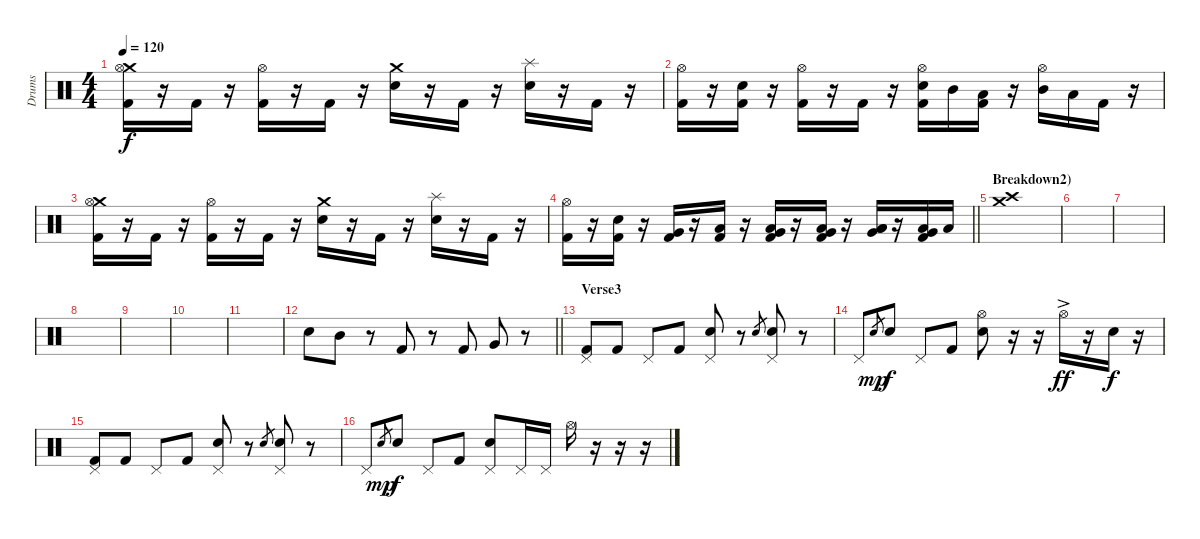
\track ("Drums" "Drums") {instrument percussion}
\staff {score}
\articulation defaults
\ts (4 4)
\tempo 120
\clef neutral
\ks c
("Crash medium (hit)" "Hi-Hat (open)" "Kick (hit) 2").16{dy f} r.16 "Kick (hit) 2".16 r.16 ("Hi-Hat (open)" "Kick (hit) 2").16 r.16 "Kick (hit) 2".16 r.16 ("Snare (hit) 2" "Crash medium (hit)").16 r.16 "Kick (hit) 2".16 r.16 ("Snare (hit) 2" "Splash (hit)").16 r.16 "Kick (hit) 2".16 r.16 |
("Hi-Hat (open)" "Kick (hit) 2").16 r.16 ("Snare (hit) 2" "Kick (hit) 2").16 r.16 ("Hi-Hat (open)" "Kick (hit) 2").16 r.16 "Kick (hit) 2".16 r.16 ("Hi-Hat (open)" "Snare (hit) 2" "Kick (hit) 2").16 "Mid Tom (hit)".16 ("Low Tom (hit)" "Kick (hit) 2").16 r.16 ("Hi-Hat (open)" "Mid Tom (hit)").16 "Low Tom (hit)".16 "Kick (hit) 2".16 r.16 |
("Crash medium (hit)" "Hi-Hat (open)" "Kick (hit) 2").16 r.16 "Kick (hit) 2".16 r.16 ("Hi-Hat (open)" "Kick (hit) 2").16 r.16 "Kick (hit) 2".16 r.16 ("Snare (hit) 2" "Crash medium (hit)").16 r.16 "Kick (hit) 2".16 r.16 ("Snare (hit) 2" "Splash (hit)").16 r.16 "Kick (hit) 2".16 r.16 |
\barLineRight lightlight
("Hi-Hat (open)" "Kick (hit) 2").16 r.16 ("Snare (hit) 2" "Kick (hit) 2").16 r.16 ("Very Low Tom (hit)" "Kick (hit) 2").16 r.16 ("Low Floor Tom (hit)" "Kick (hit) 2").16 r.16 ("Low Floor Tom (hit)" "Very Low Tom (hit)" "Kick (hit) 2").16 r.16 ("Low Floor Tom (hit)" "Very Low Tom (hit)" "Kick (hit) 2").16 r.16 ("Low Floor Tom (hit)" "Very Low Tom (hit)" "Low Tom (hit)").16 r.16 ("Low Floor Tom (hit)" "Very Low Tom (hit)" "Kick (hit) 2").16 "Low Tom (hit)".16 |
\section ("" "Breakdown2)")
("Crash medium (hit)" "Crash high (hit)").1 |
|
|
|
|
|
|
\barLineRight lightlight "Snare (hit) 2".8 "Mid Tom (hit)".8
r.8 "Kick (hit) 2".8 r.8 "Kick (hit) 2".8 "Very Low Tom (hit)".8 r.8 |
\section ("" "Verse3")
("Kick (hit) 2" "Pedal Hi-Hat (hit)").8 "Kick (hit) 2".8 "Pedal Hi-Hat (hit)".8 "Kick (hit) 2".8 ("Snare (hit) 2" "Pedal Hi-Hat (hit)").8 r.8 "Snare (hit) 2".8{gr} ("Snare (hit) 2" "Pedal Hi-Hat (hit)").8 r.8 |
"Pedal Hi-Hat (hit)".8 "Electric Snare (hit)".8{gr dy mp} "Snare (hit) 2".8{dy f} "Pedal Hi-Hat (hit)".8 "Kick (hit) 2".8 ("Snare (hit) 2" "Hi-Hat (open)").8 r.16 r.16 "Hi-Hat (open)"{ac}.16{dy ff} r.16 "Snare (hit) 2".16{dy f} r.16 |
("Kick (hit) 2" "Pedal Hi-Hat (hit)").8 "Kick (hit) 2".8 "Pedal Hi-Hat (hit)".8 "Kick (hit) 2".8 ("Snare (hit) 2" "Pedal Hi-Hat (hit)").8 r.8 "Snare (hit) 2".8{gr} ("Snare (hit) 2" "Pedal Hi-Hat (hit)").8 r.8 |
"Pedal Hi-Hat (hit)".8 "Electric Snare (hit)".8{gr dy mp} "Snare (hit) 2".8{dy f} "Pedal Hi-Hat (hit)".8 "Kick (hit) 2".8 ("Snare (hit) 2" "Pedal Hi-Hat (hit)").8 "Pedal Hi-Hat (hit)".16 "Pedal Hi-Hat (hit)".16 "Hi-Hat (open)".16 r.16 r.16 r.16
